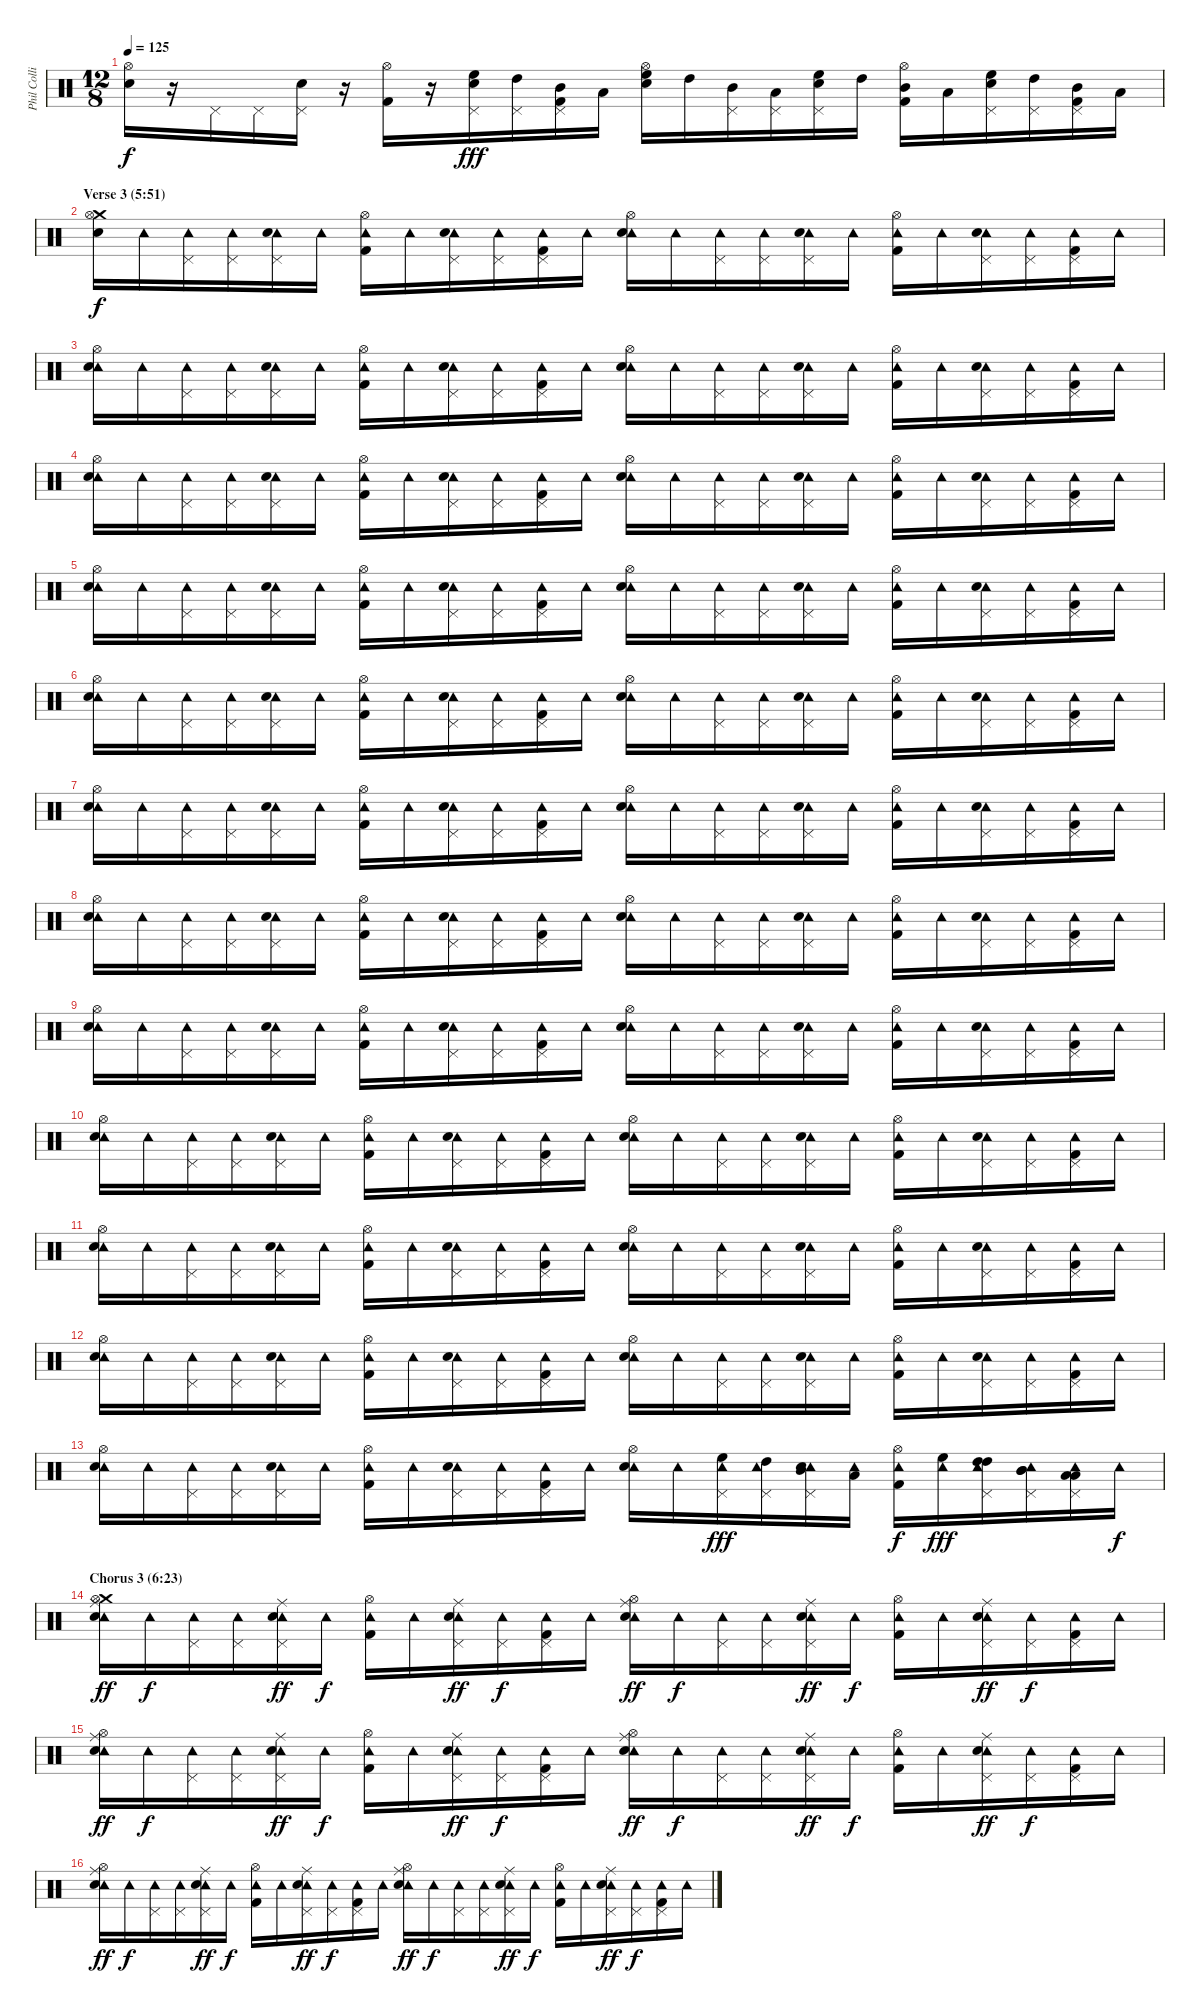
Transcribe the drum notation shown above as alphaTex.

\track ("Phil Collins (drums)" "Phil Colli") {instrument percussion}
\staff {score}
\articulation defaults
\ts (12 8)
\tempo 125
\clef neutral
\ks c
("Hi-Hat (open)" "Electric Snare (hit)").16{dy f} r.16 "Pedal Hi-Hat (hit)".16 "Pedal Hi-Hat (hit)".16 ("Pedal Hi-Hat (hit)" "Electric Snare (hit)").16 r.16 ("Hi-Hat (open)" "Kick (hit) 2").16 r.16 ("High Floor Tom (hit)" "Pedal Hi-Hat (hit)" "Electric Snare (hit)").16{dy fff} ("High Tom (hit)" "Pedal Hi-Hat (hit)").16 ("Mid Tom (hit)" "Pedal Hi-Hat (hit)" "Kick (hit) 2").16 "Low Tom (hit)".16 ("High Floor Tom (hit)" "Hi-Hat (open)" "Electric Snare (hit)").16 "High Tom (hit)".16 ("Mid Tom (hit)" "Pedal Hi-Hat (hit)").16 ("Low Tom (hit)" "Pedal Hi-Hat (hit)").16 ("High Floor Tom (hit)" "Pedal Hi-Hat (hit)" "Electric Snare (hit)").16 "High Tom (hit)".16 ("Mid Tom (hit)" "Hi-Hat (open)" "Kick (hit) 2").16 "Low Tom (hit)".16 ("High Floor Tom (hit)" "Pedal Hi-Hat (hit)" "Electric Snare (hit)").16 ("High Tom (hit)" "Pedal Hi-Hat (hit)").16 ("Mid Tom (hit)" "Pedal Hi-Hat (hit)" "Kick (hit) 2").16 "Low Tom (hit)".16 |
\section ("" "Verse 3 (5:51)")
("Crash medium (hit)" "Hi-Hat (open)" "Electric Snare (hit)").16{dy f} "Tambourine (hit)".16 ("Tambourine (hit)" "Pedal Hi-Hat (hit)").16 ("Tambourine (hit)" "Pedal Hi-Hat (hit)").16 ("Tambourine (hit)" "Pedal Hi-Hat (hit)" "Electric Snare (hit)").16 "Tambourine (hit)".16 ("Tambourine (hit)" "Hi-Hat (open)" "Kick (hit) 2").16 "Tambourine (hit)".16 ("Tambourine (hit)" "Pedal Hi-Hat (hit)" "Electric Snare (hit)").16 ("Tambourine (hit)" "Pedal Hi-Hat (hit)").16 ("Tambourine (hit)" "Pedal Hi-Hat (hit)" "Kick (hit) 2").16 "Tambourine (hit)".16 ("Tambourine (hit)" "Hi-Hat (open)" "Electric Snare (hit)").16 "Tambourine (hit)".16 ("Tambourine (hit)" "Pedal Hi-Hat (hit)").16 ("Tambourine (hit)" "Pedal Hi-Hat (hit)").16 ("Tambourine (hit)" "Pedal Hi-Hat (hit)" "Electric Snare (hit)").16 "Tambourine (hit)".16 ("Tambourine (hit)" "Hi-Hat (open)" "Kick (hit) 2").16 "Tambourine (hit)".16 ("Tambourine (hit)" "Pedal Hi-Hat (hit)" "Electric Snare (hit)").16 ("Tambourine (hit)" "Pedal Hi-Hat (hit)").16 ("Tambourine (hit)" "Pedal Hi-Hat (hit)" "Kick (hit) 2").16 "Tambourine (hit)".16 |
("Tambourine (hit)" "Hi-Hat (open)" "Electric Snare (hit)").16 "Tambourine (hit)".16 ("Tambourine (hit)" "Pedal Hi-Hat (hit)").16 ("Tambourine (hit)" "Pedal Hi-Hat (hit)").16 ("Tambourine (hit)" "Pedal Hi-Hat (hit)" "Electric Snare (hit)").16 "Tambourine (hit)".16 ("Tambourine (hit)" "Hi-Hat (open)" "Kick (hit) 2").16 "Tambourine (hit)".16 ("Tambourine (hit)" "Pedal Hi-Hat (hit)" "Electric Snare (hit)").16 ("Tambourine (hit)" "Pedal Hi-Hat (hit)").16 ("Tambourine (hit)" "Pedal Hi-Hat (hit)" "Kick (hit) 2").16 "Tambourine (hit)".16 ("Tambourine (hit)" "Hi-Hat (open)" "Electric Snare (hit)").16 "Tambourine (hit)".16 ("Tambourine (hit)" "Pedal Hi-Hat (hit)").16 ("Tambourine (hit)" "Pedal Hi-Hat (hit)").16 ("Tambourine (hit)" "Pedal Hi-Hat (hit)" "Electric Snare (hit)").16 "Tambourine (hit)".16 ("Tambourine (hit)" "Hi-Hat (open)" "Kick (hit) 2").16 "Tambourine (hit)".16 ("Tambourine (hit)" "Pedal Hi-Hat (hit)" "Electric Snare (hit)").16 ("Tambourine (hit)" "Pedal Hi-Hat (hit)").16 ("Tambourine (hit)" "Pedal Hi-Hat (hit)" "Kick (hit) 2").16 "Tambourine (hit)".16 |
("Tambourine (hit)" "Hi-Hat (open)" "Electric Snare (hit)").16 "Tambourine (hit)".16 ("Tambourine (hit)" "Pedal Hi-Hat (hit)").16 ("Tambourine (hit)" "Pedal Hi-Hat (hit)").16 ("Tambourine (hit)" "Pedal Hi-Hat (hit)" "Electric Snare (hit)").16 "Tambourine (hit)".16 ("Tambourine (hit)" "Hi-Hat (open)" "Kick (hit) 2").16 "Tambourine (hit)".16 ("Tambourine (hit)" "Pedal Hi-Hat (hit)" "Electric Snare (hit)").16 ("Tambourine (hit)" "Pedal Hi-Hat (hit)").16 ("Tambourine (hit)" "Pedal Hi-Hat (hit)" "Kick (hit) 2").16 "Tambourine (hit)".16 ("Tambourine (hit)" "Hi-Hat (open)" "Electric Snare (hit)").16 "Tambourine (hit)".16 ("Tambourine (hit)" "Pedal Hi-Hat (hit)").16 ("Tambourine (hit)" "Pedal Hi-Hat (hit)").16 ("Tambourine (hit)" "Pedal Hi-Hat (hit)" "Electric Snare (hit)").16 "Tambourine (hit)".16 ("Tambourine (hit)" "Hi-Hat (open)" "Kick (hit) 2").16 "Tambourine (hit)".16 ("Tambourine (hit)" "Pedal Hi-Hat (hit)" "Electric Snare (hit)").16 ("Tambourine (hit)" "Pedal Hi-Hat (hit)").16 ("Tambourine (hit)" "Pedal Hi-Hat (hit)" "Kick (hit) 2").16 "Tambourine (hit)".16 |
("Tambourine (hit)" "Hi-Hat (open)" "Electric Snare (hit)").16 "Tambourine (hit)".16 ("Tambourine (hit)" "Pedal Hi-Hat (hit)").16 ("Tambourine (hit)" "Pedal Hi-Hat (hit)").16 ("Tambourine (hit)" "Pedal Hi-Hat (hit)" "Electric Snare (hit)").16 "Tambourine (hit)".16 ("Tambourine (hit)" "Hi-Hat (open)" "Kick (hit) 2").16 "Tambourine (hit)".16 ("Tambourine (hit)" "Pedal Hi-Hat (hit)" "Electric Snare (hit)").16 ("Tambourine (hit)" "Pedal Hi-Hat (hit)").16 ("Tambourine (hit)" "Pedal Hi-Hat (hit)" "Kick (hit) 2").16 "Tambourine (hit)".16 ("Tambourine (hit)" "Hi-Hat (open)" "Electric Snare (hit)").16 "Tambourine (hit)".16 ("Tambourine (hit)" "Pedal Hi-Hat (hit)").16 ("Tambourine (hit)" "Pedal Hi-Hat (hit)").16 ("Tambourine (hit)" "Pedal Hi-Hat (hit)" "Electric Snare (hit)").16 "Tambourine (hit)".16 ("Tambourine (hit)" "Hi-Hat (open)" "Kick (hit) 2").16 "Tambourine (hit)".16 ("Tambourine (hit)" "Pedal Hi-Hat (hit)" "Electric Snare (hit)").16 ("Tambourine (hit)" "Pedal Hi-Hat (hit)").16 ("Tambourine (hit)" "Pedal Hi-Hat (hit)" "Kick (hit) 2").16 "Tambourine (hit)".16 |
("Tambourine (hit)" "Hi-Hat (open)" "Electric Snare (hit)").16 "Tambourine (hit)".16 ("Tambourine (hit)" "Pedal Hi-Hat (hit)").16 ("Tambourine (hit)" "Pedal Hi-Hat (hit)").16 ("Tambourine (hit)" "Pedal Hi-Hat (hit)" "Electric Snare (hit)").16 "Tambourine (hit)".16 ("Tambourine (hit)" "Hi-Hat (open)" "Kick (hit) 2").16 "Tambourine (hit)".16 ("Tambourine (hit)" "Pedal Hi-Hat (hit)" "Electric Snare (hit)").16 ("Tambourine (hit)" "Pedal Hi-Hat (hit)").16 ("Tambourine (hit)" "Pedal Hi-Hat (hit)" "Kick (hit) 2").16 "Tambourine (hit)".16 ("Tambourine (hit)" "Hi-Hat (open)" "Electric Snare (hit)").16 "Tambourine (hit)".16 ("Tambourine (hit)" "Pedal Hi-Hat (hit)").16 ("Tambourine (hit)" "Pedal Hi-Hat (hit)").16 ("Tambourine (hit)" "Pedal Hi-Hat (hit)" "Electric Snare (hit)").16 "Tambourine (hit)".16 ("Tambourine (hit)" "Hi-Hat (open)" "Kick (hit) 2").16 "Tambourine (hit)".16 ("Tambourine (hit)" "Pedal Hi-Hat (hit)" "Electric Snare (hit)").16 ("Tambourine (hit)" "Pedal Hi-Hat (hit)").16 ("Tambourine (hit)" "Pedal Hi-Hat (hit)" "Kick (hit) 2").16 "Tambourine (hit)".16 |
("Tambourine (hit)" "Hi-Hat (open)" "Electric Snare (hit)").16 "Tambourine (hit)".16 ("Tambourine (hit)" "Pedal Hi-Hat (hit)").16 ("Tambourine (hit)" "Pedal Hi-Hat (hit)").16 ("Tambourine (hit)" "Pedal Hi-Hat (hit)" "Electric Snare (hit)").16 "Tambourine (hit)".16 ("Tambourine (hit)" "Hi-Hat (open)" "Kick (hit) 2").16 "Tambourine (hit)".16 ("Tambourine (hit)" "Pedal Hi-Hat (hit)" "Electric Snare (hit)").16 ("Tambourine (hit)" "Pedal Hi-Hat (hit)").16 ("Tambourine (hit)" "Pedal Hi-Hat (hit)" "Kick (hit) 2").16 "Tambourine (hit)".16 ("Tambourine (hit)" "Hi-Hat (open)" "Electric Snare (hit)").16 "Tambourine (hit)".16 ("Tambourine (hit)" "Pedal Hi-Hat (hit)").16 ("Tambourine (hit)" "Pedal Hi-Hat (hit)").16 ("Tambourine (hit)" "Pedal Hi-Hat (hit)" "Electric Snare (hit)").16 "Tambourine (hit)".16 ("Tambourine (hit)" "Hi-Hat (open)" "Kick (hit) 2").16 "Tambourine (hit)".16 ("Tambourine (hit)" "Pedal Hi-Hat (hit)" "Electric Snare (hit)").16 ("Tambourine (hit)" "Pedal Hi-Hat (hit)").16 ("Tambourine (hit)" "Pedal Hi-Hat (hit)" "Kick (hit) 2").16 "Tambourine (hit)".16 |
("Tambourine (hit)" "Hi-Hat (open)" "Electric Snare (hit)").16 "Tambourine (hit)".16 ("Tambourine (hit)" "Pedal Hi-Hat (hit)").16 ("Tambourine (hit)" "Pedal Hi-Hat (hit)").16 ("Tambourine (hit)" "Pedal Hi-Hat (hit)" "Electric Snare (hit)").16 "Tambourine (hit)".16 ("Tambourine (hit)" "Hi-Hat (open)" "Kick (hit) 2").16 "Tambourine (hit)".16 ("Tambourine (hit)" "Pedal Hi-Hat (hit)" "Electric Snare (hit)").16 ("Tambourine (hit)" "Pedal Hi-Hat (hit)").16 ("Tambourine (hit)" "Pedal Hi-Hat (hit)" "Kick (hit) 2").16 "Tambourine (hit)".16 ("Tambourine (hit)" "Hi-Hat (open)" "Electric Snare (hit)").16 "Tambourine (hit)".16 ("Tambourine (hit)" "Pedal Hi-Hat (hit)").16 ("Tambourine (hit)" "Pedal Hi-Hat (hit)").16 ("Tambourine (hit)" "Pedal Hi-Hat (hit)" "Electric Snare (hit)").16 "Tambourine (hit)".16 ("Tambourine (hit)" "Hi-Hat (open)" "Kick (hit) 2").16 "Tambourine (hit)".16 ("Tambourine (hit)" "Pedal Hi-Hat (hit)" "Electric Snare (hit)").16 ("Tambourine (hit)" "Pedal Hi-Hat (hit)").16 ("Tambourine (hit)" "Pedal Hi-Hat (hit)" "Kick (hit) 2").16 "Tambourine (hit)".16 |
("Tambourine (hit)" "Hi-Hat (open)" "Electric Snare (hit)").16 "Tambourine (hit)".16 ("Tambourine (hit)" "Pedal Hi-Hat (hit)").16 ("Tambourine (hit)" "Pedal Hi-Hat (hit)").16 ("Tambourine (hit)" "Pedal Hi-Hat (hit)" "Electric Snare (hit)").16 "Tambourine (hit)".16 ("Tambourine (hit)" "Hi-Hat (open)" "Kick (hit) 2").16 "Tambourine (hit)".16 ("Tambourine (hit)" "Pedal Hi-Hat (hit)" "Electric Snare (hit)").16 ("Tambourine (hit)" "Pedal Hi-Hat (hit)").16 ("Tambourine (hit)" "Pedal Hi-Hat (hit)" "Kick (hit) 2").16 "Tambourine (hit)".16 ("Tambourine (hit)" "Hi-Hat (open)" "Electric Snare (hit)").16 "Tambourine (hit)".16 ("Tambourine (hit)" "Pedal Hi-Hat (hit)").16 ("Tambourine (hit)" "Pedal Hi-Hat (hit)").16 ("Tambourine (hit)" "Pedal Hi-Hat (hit)" "Electric Snare (hit)").16 "Tambourine (hit)".16 ("Tambourine (hit)" "Hi-Hat (open)" "Kick (hit) 2").16 "Tambourine (hit)".16 ("Tambourine (hit)" "Pedal Hi-Hat (hit)" "Electric Snare (hit)").16 ("Tambourine (hit)" "Pedal Hi-Hat (hit)").16 ("Tambourine (hit)" "Pedal Hi-Hat (hit)" "Kick (hit) 2").16 "Tambourine (hit)".16 |
("Tambourine (hit)" "Hi-Hat (open)" "Electric Snare (hit)").16 "Tambourine (hit)".16 ("Tambourine (hit)" "Pedal Hi-Hat (hit)").16 ("Tambourine (hit)" "Pedal Hi-Hat (hit)").16 ("Tambourine (hit)" "Pedal Hi-Hat (hit)" "Electric Snare (hit)").16 "Tambourine (hit)".16 ("Tambourine (hit)" "Hi-Hat (open)" "Kick (hit) 2").16 "Tambourine (hit)".16 ("Tambourine (hit)" "Pedal Hi-Hat (hit)" "Electric Snare (hit)").16 ("Tambourine (hit)" "Pedal Hi-Hat (hit)").16 ("Tambourine (hit)" "Pedal Hi-Hat (hit)" "Kick (hit) 2").16 "Tambourine (hit)".16 ("Tambourine (hit)" "Hi-Hat (open)" "Electric Snare (hit)").16 "Tambourine (hit)".16 ("Tambourine (hit)" "Pedal Hi-Hat (hit)").16 ("Tambourine (hit)" "Pedal Hi-Hat (hit)").16 ("Tambourine (hit)" "Pedal Hi-Hat (hit)" "Electric Snare (hit)").16 "Tambourine (hit)".16 ("Tambourine (hit)" "Hi-Hat (open)" "Kick (hit) 2").16 "Tambourine (hit)".16 ("Tambourine (hit)" "Pedal Hi-Hat (hit)" "Electric Snare (hit)").16 ("Tambourine (hit)" "Pedal Hi-Hat (hit)").16 ("Tambourine (hit)" "Pedal Hi-Hat (hit)" "Kick (hit) 2").16 "Tambourine (hit)".16 |
("Tambourine (hit)" "Hi-Hat (open)" "Electric Snare (hit)").16 "Tambourine (hit)".16 ("Tambourine (hit)" "Pedal Hi-Hat (hit)").16 ("Tambourine (hit)" "Pedal Hi-Hat (hit)").16 ("Tambourine (hit)" "Pedal Hi-Hat (hit)" "Electric Snare (hit)").16 "Tambourine (hit)".16 ("Tambourine (hit)" "Hi-Hat (open)" "Kick (hit) 2").16 "Tambourine (hit)".16 ("Tambourine (hit)" "Pedal Hi-Hat (hit)" "Electric Snare (hit)").16 ("Tambourine (hit)" "Pedal Hi-Hat (hit)").16 ("Tambourine (hit)" "Pedal Hi-Hat (hit)" "Kick (hit) 2").16 "Tambourine (hit)".16 ("Tambourine (hit)" "Hi-Hat (open)" "Electric Snare (hit)").16 "Tambourine (hit)".16 ("Tambourine (hit)" "Pedal Hi-Hat (hit)").16 ("Tambourine (hit)" "Pedal Hi-Hat (hit)").16 ("Tambourine (hit)" "Pedal Hi-Hat (hit)" "Electric Snare (hit)").16 "Tambourine (hit)".16 ("Tambourine (hit)" "Hi-Hat (open)" "Kick (hit) 2").16 "Tambourine (hit)".16 ("Tambourine (hit)" "Pedal Hi-Hat (hit)" "Electric Snare (hit)").16 ("Tambourine (hit)" "Pedal Hi-Hat (hit)").16 ("Tambourine (hit)" "Pedal Hi-Hat (hit)" "Kick (hit) 2").16 "Tambourine (hit)".16 |
("Tambourine (hit)" "Hi-Hat (open)" "Electric Snare (hit)").16 "Tambourine (hit)".16 ("Tambourine (hit)" "Pedal Hi-Hat (hit)").16 ("Tambourine (hit)" "Pedal Hi-Hat (hit)").16 ("Tambourine (hit)" "Pedal Hi-Hat (hit)" "Electric Snare (hit)").16 "Tambourine (hit)".16 ("Tambourine (hit)" "Hi-Hat (open)" "Kick (hit) 2").16 "Tambourine (hit)".16 ("Tambourine (hit)" "Pedal Hi-Hat (hit)" "Electric Snare (hit)").16 ("Tambourine (hit)" "Pedal Hi-Hat (hit)").16 ("Tambourine (hit)" "Pedal Hi-Hat (hit)" "Kick (hit) 2").16 "Tambourine (hit)".16 ("Tambourine (hit)" "Hi-Hat (open)" "Electric Snare (hit)").16 "Tambourine (hit)".16 ("Tambourine (hit)" "Pedal Hi-Hat (hit)").16 ("Tambourine (hit)" "Pedal Hi-Hat (hit)").16 ("Tambourine (hit)" "Pedal Hi-Hat (hit)" "Electric Snare (hit)").16 "Tambourine (hit)".16 ("Tambourine (hit)" "Hi-Hat (open)" "Kick (hit) 2").16 "Tambourine (hit)".16 ("Tambourine (hit)" "Pedal Hi-Hat (hit)" "Electric Snare (hit)").16 ("Tambourine (hit)" "Pedal Hi-Hat (hit)").16 ("Tambourine (hit)" "Pedal Hi-Hat (hit)" "Kick (hit) 2").16 "Tambourine (hit)".16 |
("Tambourine (hit)" "Hi-Hat (open)" "Electric Snare (hit)").16 "Tambourine (hit)".16 ("Tambourine (hit)" "Pedal Hi-Hat (hit)").16 ("Tambourine (hit)" "Pedal Hi-Hat (hit)").16 ("Tambourine (hit)" "Pedal Hi-Hat (hit)" "Electric Snare (hit)").16 "Tambourine (hit)".16 ("Tambourine (hit)" "Hi-Hat (open)" "Kick (hit) 2").16 "Tambourine (hit)".16 ("Tambourine (hit)" "Pedal Hi-Hat (hit)" "Electric Snare (hit)").16 ("Tambourine (hit)" "Pedal Hi-Hat (hit)").16 ("Tambourine (hit)" "Pedal Hi-Hat (hit)" "Kick (hit) 2").16 "Tambourine (hit)".16 ("Tambourine (hit)" "Hi-Hat (open)" "Electric Snare (hit)").16 "Tambourine (hit)".16 ("High Floor Tom (hit)" "Tambourine (hit)" "Pedal Hi-Hat (hit)").16{dy fff} ("High Tom (hit)" "Tambourine (hit)" "Pedal Hi-Hat (hit)").16 ("Mid Tom (hit)" "Tambourine (hit)" "Pedal Hi-Hat (hit)" "Electric Snare (hit)").16 ("Low Tom (hit)" "Tambourine (hit)").16 ("Tambourine (hit)" "Hi-Hat (open)" "Kick (hit) 2").16{dy f} ("High Floor Tom (hit)" "Tambourine (hit)").16{dy fff} ("High Tom (hit)" "Tambourine (hit)" "Pedal Hi-Hat (hit)" "High Tom (hit)").16 ("Mid Tom (hit)" "Tambourine (hit)" "Pedal Hi-Hat (hit)" "Mid Tom (hit)").16 ("Low Tom (hit)" "Tambourine (hit)" "Pedal Hi-Hat (hit)" "Low Tom (hit)").16 "Tambourine (hit)".16{dy f} |
\section ("" "Chorus 3 (6:23)")
("Crash medium (hit)" "Ride (middle)" "Tambourine (hit)" "Hi-Hat (open)" "Electric Snare (hit)").16{dy ff} "Tambourine (hit)".16{dy f} ("Tambourine (hit)" "Pedal Hi-Hat (hit)").16 ("Tambourine (hit)" "Pedal Hi-Hat (hit)").16 ("Ride (middle)" "Tambourine (hit)" "Pedal Hi-Hat (hit)" "Electric Snare (hit)").16{dy ff} "Tambourine (hit)".16{dy f} ("Tambourine (hit)" "Hi-Hat (open)" "Kick (hit) 2").16 "Tambourine (hit)".16 ("Ride (middle)" "Tambourine (hit)" "Pedal Hi-Hat (hit)" "Electric Snare (hit)").16{dy ff} ("Tambourine (hit)" "Pedal Hi-Hat (hit)").16{dy f} ("Tambourine (hit)" "Pedal Hi-Hat (hit)" "Kick (hit) 2").16 "Tambourine (hit)".16 ("Ride (middle)" "Tambourine (hit)" "Hi-Hat (open)" "Electric Snare (hit)").16{dy ff} "Tambourine (hit)".16{dy f} ("Tambourine (hit)" "Pedal Hi-Hat (hit)").16 ("Tambourine (hit)" "Pedal Hi-Hat (hit)").16 ("Ride (middle)" "Tambourine (hit)" "Pedal Hi-Hat (hit)" "Electric Snare (hit)").16{dy ff} "Tambourine (hit)".16{dy f} ("Tambourine (hit)" "Hi-Hat (open)" "Kick (hit) 2").16 "Tambourine (hit)".16 ("Ride (middle)" "Tambourine (hit)" "Pedal Hi-Hat (hit)" "Electric Snare (hit)").16{dy ff} ("Tambourine (hit)" "Pedal Hi-Hat (hit)").16{dy f} ("Tambourine (hit)" "Pedal Hi-Hat (hit)" "Kick (hit) 2").16 "Tambourine (hit)".16 |
("Ride (middle)" "Tambourine (hit)" "Hi-Hat (open)" "Electric Snare (hit)").16{dy ff} "Tambourine (hit)".16{dy f} ("Tambourine (hit)" "Pedal Hi-Hat (hit)").16 ("Tambourine (hit)" "Pedal Hi-Hat (hit)").16 ("Ride (middle)" "Tambourine (hit)" "Pedal Hi-Hat (hit)" "Electric Snare (hit)").16{dy ff} "Tambourine (hit)".16{dy f} ("Tambourine (hit)" "Hi-Hat (open)" "Kick (hit) 2").16 "Tambourine (hit)".16 ("Ride (middle)" "Tambourine (hit)" "Pedal Hi-Hat (hit)" "Electric Snare (hit)").16{dy ff} ("Tambourine (hit)" "Pedal Hi-Hat (hit)").16{dy f} ("Tambourine (hit)" "Pedal Hi-Hat (hit)" "Kick (hit) 2").16 "Tambourine (hit)".16 ("Ride (middle)" "Tambourine (hit)" "Hi-Hat (open)" "Electric Snare (hit)").16{dy ff} "Tambourine (hit)".16{dy f} ("Tambourine (hit)" "Pedal Hi-Hat (hit)").16 ("Tambourine (hit)" "Pedal Hi-Hat (hit)").16 ("Ride (middle)" "Tambourine (hit)" "Pedal Hi-Hat (hit)" "Electric Snare (hit)").16{dy ff} "Tambourine (hit)".16{dy f} ("Tambourine (hit)" "Hi-Hat (open)" "Kick (hit) 2").16 "Tambourine (hit)".16 ("Ride (middle)" "Tambourine (hit)" "Pedal Hi-Hat (hit)" "Electric Snare (hit)").16{dy ff} ("Tambourine (hit)" "Pedal Hi-Hat (hit)").16{dy f} ("Tambourine (hit)" "Pedal Hi-Hat (hit)" "Kick (hit) 2").16 "Tambourine (hit)".16 |
("Ride (middle)" "Tambourine (hit)" "Hi-Hat (open)" "Electric Snare (hit)").16{dy ff} "Tambourine (hit)".16{dy f} ("Tambourine (hit)" "Pedal Hi-Hat (hit)").16 ("Tambourine (hit)" "Pedal Hi-Hat (hit)").16 ("Ride (middle)" "Tambourine (hit)" "Pedal Hi-Hat (hit)" "Electric Snare (hit)").16{dy ff} "Tambourine (hit)".16{dy f} ("Tambourine (hit)" "Hi-Hat (open)" "Kick (hit) 2").16 "Tambourine (hit)".16 ("Ride (middle)" "Tambourine (hit)" "Pedal Hi-Hat (hit)" "Electric Snare (hit)").16{dy ff} ("Tambourine (hit)" "Pedal Hi-Hat (hit)").16{dy f} ("Tambourine (hit)" "Pedal Hi-Hat (hit)" "Kick (hit) 2").16 "Tambourine (hit)".16 ("Ride (middle)" "Tambourine (hit)" "Hi-Hat (open)" "Electric Snare (hit)").16{dy ff} "Tambourine (hit)".16{dy f} ("Tambourine (hit)" "Pedal Hi-Hat (hit)").16 ("Tambourine (hit)" "Pedal Hi-Hat (hit)").16 ("Ride (middle)" "Tambourine (hit)" "Pedal Hi-Hat (hit)" "Electric Snare (hit)").16{dy ff} "Tambourine (hit)".16{dy f} ("Tambourine (hit)" "Hi-Hat (open)" "Kick (hit) 2").16 "Tambourine (hit)".16 ("Ride (middle)" "Tambourine (hit)" "Pedal Hi-Hat (hit)" "Electric Snare (hit)").16{dy ff} ("Tambourine (hit)" "Pedal Hi-Hat (hit)").16{dy f} ("Tambourine (hit)" "Pedal Hi-Hat (hit)" "Kick (hit) 2").16 "Tambourine (hit)".16
